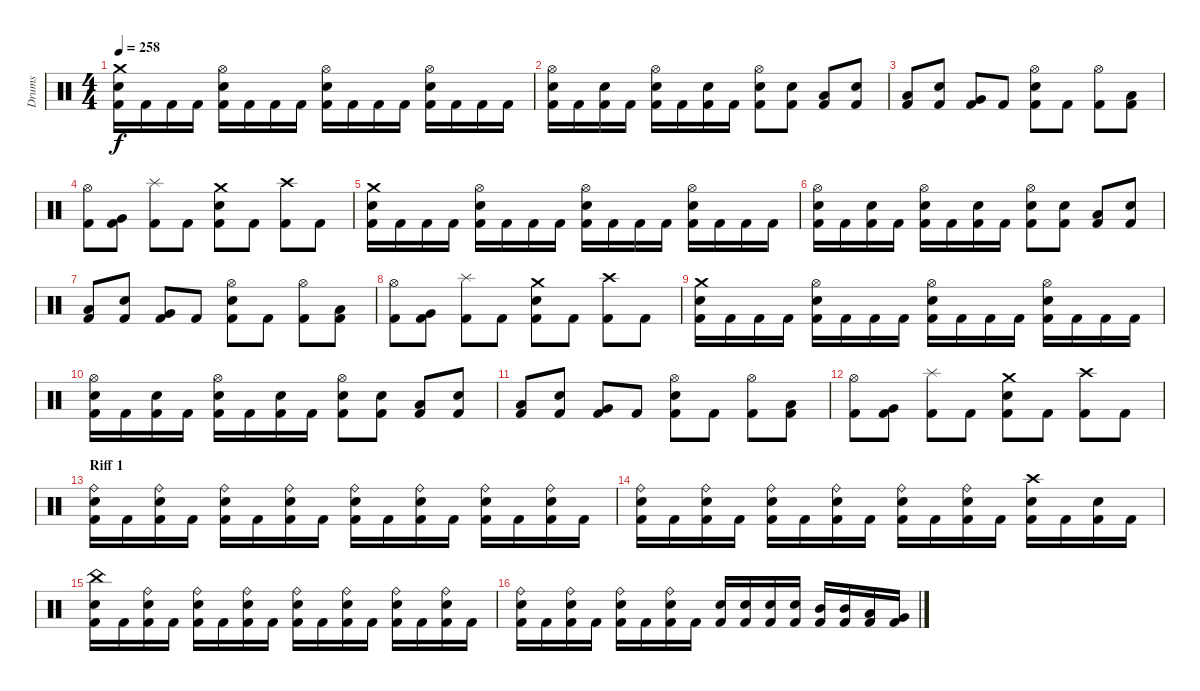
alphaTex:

\track ("Drums" "Drums") {instrument percussion}
\staff {score}
\articulation defaults
\ts (4 4)
\tempo 258
\clef neutral
\ks c
("Kick (hit) 2" "Snare (hit) 2" "Crash medium (hit)").16{dy f} "Kick (hit) 2".16 "Kick (hit) 2".16 "Kick (hit) 2".16 ("Kick (hit) 2" "Snare (hit) 2" "Hi-Hat (open)").16 "Kick (hit) 2".16 "Kick (hit) 2".16 "Kick (hit) 2".16 ("Kick (hit) 2" "Snare (hit) 2" "Hi-Hat (open)").16 "Kick (hit) 2".16 "Kick (hit) 2".16 "Kick (hit) 2".16 ("Kick (hit) 2" "Snare (hit) 2" "Hi-Hat (open)").16 "Kick (hit) 2".16 "Kick (hit) 2".16 "Kick (hit) 2".16 |
("Kick (hit) 2" "Snare (hit) 2" "Hi-Hat (open)").16 "Kick (hit) 2".16 ("Kick (hit) 2" "Snare (hit) 2").16 "Kick (hit) 2".16 ("Kick (hit) 2" "Snare (hit) 2" "Hi-Hat (open)").16 "Kick (hit) 2".16 ("Kick (hit) 2" "Snare (hit) 2").16 "Kick (hit) 2".16 ("Kick (hit) 2" "Snare (hit) 2" "Hi-Hat (open)").8 ("Kick (hit) 2" "Snare (hit) 2").8 ("Kick (hit) 2" "Low Tom (hit)").8 ("Kick (hit) 2" "Snare (hit) 2").8 |
("Kick (hit) 2" "Low Tom (hit)").8 ("Kick (hit) 2" "Snare (hit) 2").8 ("Kick (hit) 2" "Very Low Tom (hit)").8 "Kick (hit) 2".8 ("Kick (hit) 2" "Snare (hit) 2" "Hi-Hat (open)").8 "Kick (hit) 2".8 ("Kick (hit) 2" "Hi-Hat (open)").8 ("Kick (hit) 2" "Low Tom (hit)").8 |
("Kick (hit) 2" "Hi-Hat (open)").8 ("Kick (hit) 2" "Very Low Tom (hit)").8 ("Kick (hit) 2" "Splash (hit)").8 "Kick (hit) 2".8 ("Kick (hit) 2" "Snare (hit) 2" "Crash medium (hit)").8 "Kick (hit) 2".8 ("Kick (hit) 2" "Crash high (hit)").8 "Kick (hit) 2".8 |
("Kick (hit) 2" "Snare (hit) 2" "Crash medium (hit)").16 "Kick (hit) 2".16 "Kick (hit) 2".16 "Kick (hit) 2".16 ("Kick (hit) 2" "Snare (hit) 2" "Hi-Hat (open)").16 "Kick (hit) 2".16 "Kick (hit) 2".16 "Kick (hit) 2".16 ("Kick (hit) 2" "Snare (hit) 2" "Hi-Hat (open)").16 "Kick (hit) 2".16 "Kick (hit) 2".16 "Kick (hit) 2".16 ("Kick (hit) 2" "Snare (hit) 2" "Hi-Hat (open)").16 "Kick (hit) 2".16 "Kick (hit) 2".16 "Kick (hit) 2".16 |
("Kick (hit) 2" "Snare (hit) 2" "Hi-Hat (open)").16 "Kick (hit) 2".16 ("Kick (hit) 2" "Snare (hit) 2").16 "Kick (hit) 2".16 ("Kick (hit) 2" "Snare (hit) 2" "Hi-Hat (open)").16 "Kick (hit) 2".16 ("Kick (hit) 2" "Snare (hit) 2").16 "Kick (hit) 2".16 ("Kick (hit) 2" "Snare (hit) 2" "Hi-Hat (open)").8 ("Kick (hit) 2" "Snare (hit) 2").8 ("Kick (hit) 2" "Low Tom (hit)").8 ("Kick (hit) 2" "Snare (hit) 2").8 |
("Kick (hit) 2" "Low Tom (hit)").8 ("Kick (hit) 2" "Snare (hit) 2").8 ("Kick (hit) 2" "Very Low Tom (hit)").8 "Kick (hit) 2".8 ("Kick (hit) 2" "Snare (hit) 2" "Hi-Hat (open)").8 "Kick (hit) 2".8 ("Kick (hit) 2" "Hi-Hat (open)").8 ("Kick (hit) 2" "Low Tom (hit)").8 |
("Kick (hit) 2" "Hi-Hat (open)").8 ("Kick (hit) 2" "Very Low Tom (hit)").8 ("Kick (hit) 2" "Splash (hit)").8 "Kick (hit) 2".8 ("Kick (hit) 2" "Snare (hit) 2" "Crash medium (hit)").8 "Kick (hit) 2".8 ("Kick (hit) 2" "Crash high (hit)").8 "Kick (hit) 2".8 |
("Kick (hit) 2" "Snare (hit) 2" "Crash medium (hit)").16 "Kick (hit) 2".16 "Kick (hit) 2".16 "Kick (hit) 2".16 ("Kick (hit) 2" "Snare (hit) 2" "Hi-Hat (open)").16 "Kick (hit) 2".16 "Kick (hit) 2".16 "Kick (hit) 2".16 ("Kick (hit) 2" "Snare (hit) 2" "Hi-Hat (open)").16 "Kick (hit) 2".16 "Kick (hit) 2".16 "Kick (hit) 2".16 ("Kick (hit) 2" "Snare (hit) 2" "Hi-Hat (open)").16 "Kick (hit) 2".16 "Kick (hit) 2".16 "Kick (hit) 2".16 |
("Kick (hit) 2" "Snare (hit) 2" "Hi-Hat (open)").16 "Kick (hit) 2".16 ("Kick (hit) 2" "Snare (hit) 2").16 "Kick (hit) 2".16 ("Kick (hit) 2" "Snare (hit) 2" "Hi-Hat (open)").16 "Kick (hit) 2".16 ("Kick (hit) 2" "Snare (hit) 2").16 "Kick (hit) 2".16 ("Kick (hit) 2" "Snare (hit) 2" "Hi-Hat (open)").8 ("Kick (hit) 2" "Snare (hit) 2").8 ("Kick (hit) 2" "Low Tom (hit)").8 ("Kick (hit) 2" "Snare (hit) 2").8 |
("Kick (hit) 2" "Low Tom (hit)").8 ("Kick (hit) 2" "Snare (hit) 2").8 ("Kick (hit) 2" "Very Low Tom (hit)").8 "Kick (hit) 2".8 ("Kick (hit) 2" "Snare (hit) 2" "Hi-Hat (open)").8 "Kick (hit) 2".8 ("Kick (hit) 2" "Hi-Hat (open)").8 ("Kick (hit) 2" "Low Tom (hit)").8 |
("Kick (hit) 2" "Hi-Hat (open)").8 ("Kick (hit) 2" "Very Low Tom (hit)").8 ("Kick (hit) 2" "Splash (hit)").8 "Kick (hit) 2".8 ("Kick (hit) 2" "Snare (hit) 2" "Crash medium (hit)").8 "Kick (hit) 2".8 ("Kick (hit) 2" "Crash high (hit)").8 "Kick (hit) 2".8 |
\section ("" "Riff 1")
("Kick (hit) 2" "Snare (hit) 2" "Ride (bell)").16 "Kick (hit) 2".16 ("Kick (hit) 2" "Snare (hit) 2" "Ride (bell)").16 "Kick (hit) 2".16 ("Kick (hit) 2" "Snare (hit) 2" "Ride (bell)").16 "Kick (hit) 2".16 ("Kick (hit) 2" "Snare (hit) 2" "Ride (bell)").16 "Kick (hit) 2".16 ("Kick (hit) 2" "Snare (hit) 2" "Ride (bell)").16 "Kick (hit) 2".16 ("Kick (hit) 2" "Snare (hit) 2" "Ride (bell)").16 "Kick (hit) 2".16 ("Kick (hit) 2" "Snare (hit) 2" "Ride (bell)").16 "Kick (hit) 2".16 ("Kick (hit) 2" "Snare (hit) 2" "Ride (bell)").16 "Kick (hit) 2".16 |
("Kick (hit) 2" "Snare (hit) 2" "Ride (bell)").16 "Kick (hit) 2".16 ("Kick (hit) 2" "Snare (hit) 2" "Ride (bell)").16 "Kick (hit) 2".16 ("Kick (hit) 2" "Snare (hit) 2" "Ride (bell)").16 "Kick (hit) 2".16 ("Kick (hit) 2" "Snare (hit) 2" "Ride (bell)").16 "Kick (hit) 2".16 ("Kick (hit) 2" "Snare (hit) 2" "Ride (bell)").16 "Kick (hit) 2".16 ("Kick (hit) 2" "Snare (hit) 2" "Ride (bell)").16 "Kick (hit) 2".16 ("Kick (hit) 2" "Snare (hit) 2" "Crash high (hit)").16 "Kick (hit) 2".16 ("Kick (hit) 2" "Snare (hit) 2").16 "Kick (hit) 2".16 |
("Kick (hit) 2" "Snare (hit) 2" "China (hit)").16 "Kick (hit) 2".16 ("Kick (hit) 2" "Snare (hit) 2" "Ride (bell)").16 "Kick (hit) 2".16 ("Kick (hit) 2" "Snare (hit) 2" "Ride (bell)").16 "Kick (hit) 2".16 ("Kick (hit) 2" "Snare (hit) 2" "Ride (bell)").16 "Kick (hit) 2".16 ("Kick (hit) 2" "Snare (hit) 2" "Ride (bell)").16 "Kick (hit) 2".16 ("Kick (hit) 2" "Snare (hit) 2" "Ride (bell)").16 "Kick (hit) 2".16 ("Kick (hit) 2" "Snare (hit) 2" "Ride (bell)").16 "Kick (hit) 2".16 ("Kick (hit) 2" "Snare (hit) 2" "Ride (bell)").16 "Kick (hit) 2".16 |
("Kick (hit) 2" "Snare (hit) 2" "Ride (bell)").16 "Kick (hit) 2".16 ("Kick (hit) 2" "Snare (hit) 2" "Ride (bell)").16 "Kick (hit) 2".16 ("Kick (hit) 2" "Snare (hit) 2" "Ride (bell)").16 "Kick (hit) 2".16 ("Kick (hit) 2" "Snare (hit) 2" "Ride (bell)").16 "Kick (hit) 2".16 ("Kick (hit) 2" "Snare (hit) 2").16 ("Kick (hit) 2" "Snare (hit) 2").16 ("Kick (hit) 2" "Snare (hit) 2").16 ("Kick (hit) 2" "Snare (hit) 2").16 ("Kick (hit) 2" "Mid Tom (hit)").16 ("Kick (hit) 2" "Mid Tom (hit)").16 ("Kick (hit) 2" "Low Tom (hit)").16 ("Kick (hit) 2" "Very Low Tom (hit)").16
